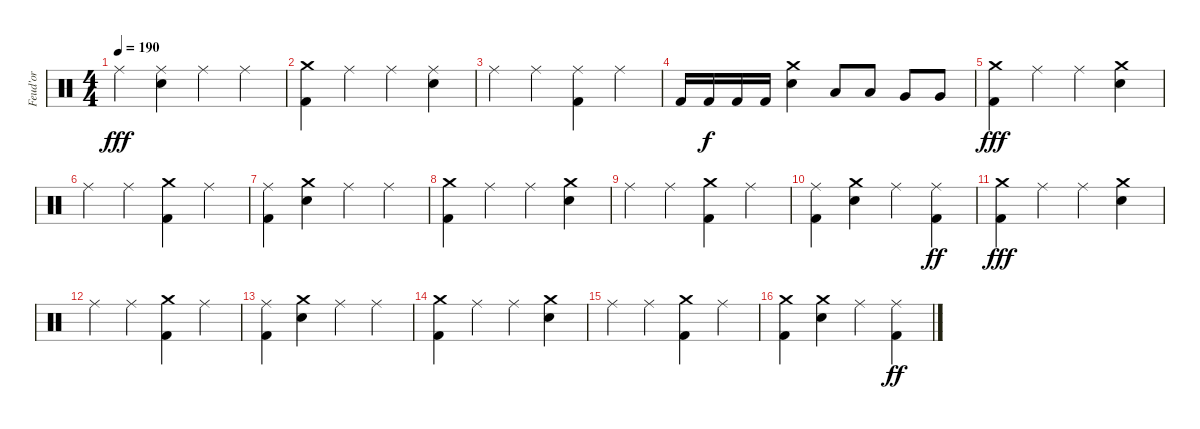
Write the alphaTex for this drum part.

\track ("Feud'or" "Feud'or") {instrument percussion}
\staff {score}
\articulation defaults
\ts (4 4)
\tempo 190
\clef neutral
\ks c "Ride (middle)".4{dy fff}
("Ride (middle)" "Snare (hit) 2").4 "Ride (middle)".4 "Ride (middle)".4 |
("Crash medium (hit)" "Kick (hit) 2").4 "Ride (middle)".4 "Ride (middle)".4 ("Ride (middle)" "Snare (hit) 2").4 |
"Ride (middle)".4 "Ride (middle)".4 ("Ride (middle)" "Kick (hit) 2").4 "Ride (middle)".4 |
"Kick (hit) 2".16 "Kick (hit) 2".16{dy f} "Kick (hit) 2".16 "Kick (hit) 2".16 ("Crash medium (hit)" "Snare (hit) 2").4 "Low Tom (hit)".8 "Low Tom (hit)".8 "Very Low Tom (hit)".8 "Very Low Tom (hit)".8 |
("Crash medium (hit)" "Kick (hit) 2").4{dy fff} "Ride (middle)".4 "Ride (middle)".4 ("Crash medium (hit)" "Snare (hit) 2").4 |
"Ride (middle)".4 "Ride (middle)".4 ("Crash medium (hit)" "Kick (hit) 2").4 "Ride (middle)".4 |
("Ride (middle)" "Kick (hit) 2").4 ("Crash medium (hit)" "Snare (hit) 2").4 "Ride (middle)".4 "Ride (middle)".4 |
("Crash medium (hit)" "Kick (hit) 2").4 "Ride (middle)".4 "Ride (middle)".4 ("Crash medium (hit)" "Snare (hit) 2").4 |
"Ride (middle)".4 "Ride (middle)".4 ("Crash medium (hit)" "Kick (hit) 2").4 "Ride (middle)".4 |
("Ride (middle)" "Kick (hit) 2").4 ("Crash medium (hit)" "Snare (hit) 2").4 "Ride (middle)".4 ("Ride (middle)" "Kick (hit) 2").4{dy ff} |
("Crash medium (hit)" "Kick (hit) 2").4{dy fff} "Ride (middle)".4 "Ride (middle)".4 ("Crash medium (hit)" "Snare (hit) 2").4 |
"Ride (middle)".4 "Ride (middle)".4 ("Crash medium (hit)" "Kick (hit) 2").4 "Ride (middle)".4 |
("Ride (middle)" "Kick (hit) 2").4 ("Crash medium (hit)" "Snare (hit) 2").4 "Ride (middle)".4 "Ride (middle)".4 |
("Crash medium (hit)" "Kick (hit) 2").4 "Ride (middle)".4 "Ride (middle)".4 ("Crash medium (hit)" "Snare (hit) 2").4 |
"Ride (middle)".4 "Ride (middle)".4 ("Crash medium (hit)" "Kick (hit) 2").4 "Ride (middle)".4 |
("Crash medium (hit)" "Kick (hit) 2").4 ("Crash medium (hit)" "Snare (hit) 2").4 "Ride (middle)".4 ("Ride (middle)" "Kick (hit) 2").4{dy ff}
